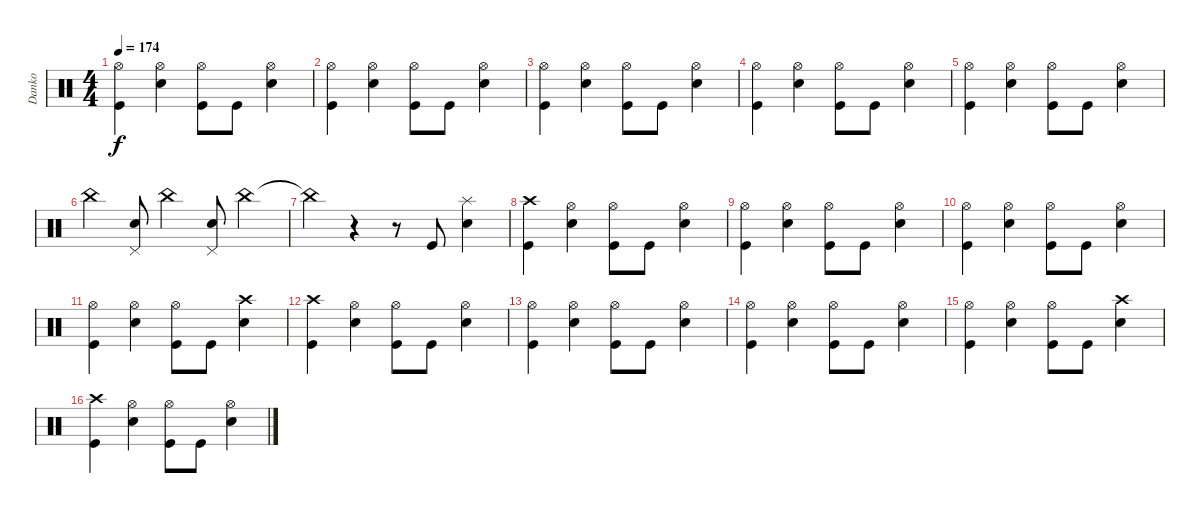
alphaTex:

\track ("Danko" "Danko") {instrument percussion}
\staff {score}
\articulation defaults
\ts (4 4)
\tempo 174
\clef neutral
\ks c
("Hi-Hat (open)" "Kick (hit)").4{dy f} ("Hi-Hat (open)" "Snare (hit) 2").4 ("Hi-Hat (open)" "Kick (hit)").8 "Kick (hit)".8 ("Hi-Hat (open)" "Snare (hit) 2").4 |
("Hi-Hat (open)" "Kick (hit)").4 ("Hi-Hat (open)" "Snare (hit) 2").4 ("Hi-Hat (open)" "Kick (hit)").8 "Kick (hit)".8 ("Hi-Hat (open)" "Snare (hit) 2").4 |
("Hi-Hat (open)" "Kick (hit)").4 ("Hi-Hat (open)" "Snare (hit) 2").4 ("Hi-Hat (open)" "Kick (hit)").8 "Kick (hit)".8 ("Hi-Hat (open)" "Snare (hit) 2").4 |
("Hi-Hat (open)" "Kick (hit)").4 ("Hi-Hat (open)" "Snare (hit) 2").4 ("Hi-Hat (open)" "Kick (hit)").8 "Kick (hit)".8 ("Hi-Hat (open)" "Snare (hit) 2").4 |
("Hi-Hat (open)" "Kick (hit)").4 ("Hi-Hat (open)" "Snare (hit) 2").4 ("Hi-Hat (open)" "Kick (hit)").8 "Kick (hit)".8 ("Hi-Hat (open)" "Snare (hit) 2").4 |
"China (hit)".4 ("Snare (hit) 2" "Pedal Hi-Hat (hit)").8 "China (hit)".4 ("Snare (hit) 2" "Pedal Hi-Hat (hit)").8 "China (hit)".4 |
"China (hit)"{t}.4 r.4 r.8 "Kick (hit)".8 ("Snare (hit) 2" "Splash (hit)").4 |
("Crash high (hit)" "Kick (hit)").4 ("Hi-Hat (open)" "Snare (hit) 2").4 ("Hi-Hat (open)" "Kick (hit)").8 "Kick (hit)".8 ("Hi-Hat (open)" "Snare (hit) 2").4 |
("Hi-Hat (open)" "Kick (hit)").4 ("Hi-Hat (open)" "Snare (hit) 2").4 ("Hi-Hat (open)" "Kick (hit)").8 "Kick (hit)".8 ("Hi-Hat (open)" "Snare (hit) 2").4 |
("Hi-Hat (open)" "Kick (hit)").4 ("Hi-Hat (open)" "Snare (hit) 2").4 ("Hi-Hat (open)" "Kick (hit)").8 "Kick (hit)".8 ("Hi-Hat (open)" "Snare (hit) 2").4 |
("Hi-Hat (open)" "Kick (hit)").4 ("Hi-Hat (open)" "Snare (hit) 2").4 ("Hi-Hat (open)" "Kick (hit)").8 "Kick (hit)".8 ("Crash high (hit)" "Snare (hit) 2").4 |
("Crash high (hit)" "Kick (hit)").4 ("Hi-Hat (open)" "Snare (hit) 2").4 ("Hi-Hat (open)" "Kick (hit)").8 "Kick (hit)".8 ("Hi-Hat (open)" "Snare (hit) 2").4 |
("Hi-Hat (open)" "Kick (hit)").4 ("Hi-Hat (open)" "Snare (hit) 2").4 ("Hi-Hat (open)" "Kick (hit)").8 "Kick (hit)".8 ("Hi-Hat (open)" "Snare (hit) 2").4 |
("Hi-Hat (open)" "Kick (hit)").4 ("Hi-Hat (open)" "Snare (hit) 2").4 ("Hi-Hat (open)" "Kick (hit)").8 "Kick (hit)".8 ("Hi-Hat (open)" "Snare (hit) 2").4 |
("Hi-Hat (open)" "Kick (hit)").4 ("Hi-Hat (open)" "Snare (hit) 2").4 ("Hi-Hat (open)" "Kick (hit)").8 "Kick (hit)".8 ("Crash high (hit)" "Snare (hit) 2").4 |
("Crash high (hit)" "Kick (hit)").4 ("Hi-Hat (open)" "Snare (hit) 2").4 ("Hi-Hat (open)" "Kick (hit)").8 "Kick (hit)".8 ("Hi-Hat (open)" "Snare (hit) 2").4
